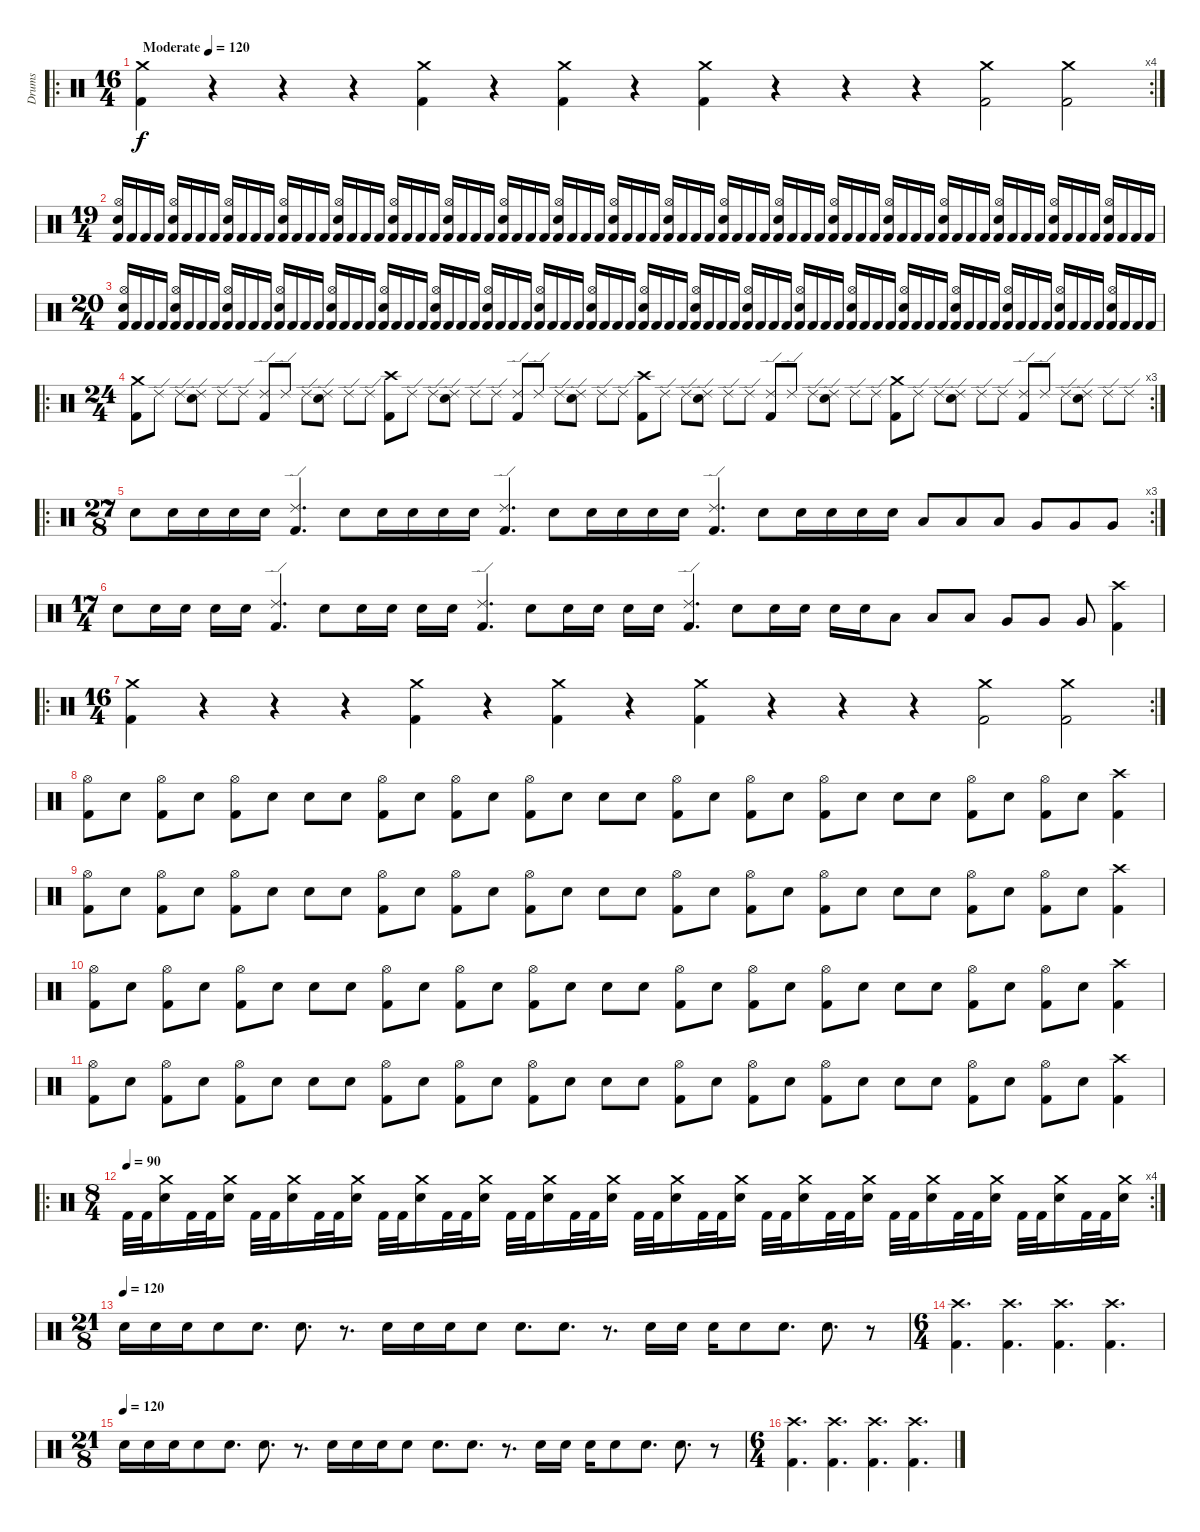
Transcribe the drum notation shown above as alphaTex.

\track ("Drums" "Drums") {instrument percussion}
\staff {score}
\articulation defaults
\ro
\rc 4
\ts (16 4)
\tempo (120 "Moderate")
\clef neutral
\ks c
("Crash medium (hit)" "Kick (hit) 2").4{dy f} r.4 r.4 r.4 ("Crash medium (hit)" "Kick (hit) 2").4 r.4 ("Crash medium (hit)" "Kick (hit) 2").4 r.4 ("Crash medium (hit)" "Kick (hit) 2").4 r.4 r.4 r.4 ("Crash medium (hit)" "Kick (hit) 2").2 ("Crash medium (hit)" "Kick (hit) 2").2 |
\ts (19 4)
("Hi-Hat (open)" "Snare (hit) 2" "Kick (hit) 2").16 "Kick (hit) 2".16 "Kick (hit) 2".16 "Kick (hit) 2".16 ("Hi-Hat (open)" "Snare (hit) 2" "Kick (hit) 2").16 "Kick (hit) 2".16 "Kick (hit) 2".16 "Kick (hit) 2".16 ("Hi-Hat (open)" "Snare (hit) 2" "Kick (hit) 2").16 "Kick (hit) 2".16 "Kick (hit) 2".16 "Kick (hit) 2".16 ("Hi-Hat (open)" "Snare (hit) 2" "Kick (hit) 2").16 "Kick (hit) 2".16 "Kick (hit) 2".16 "Kick (hit) 2".16 ("Hi-Hat (open)" "Snare (hit) 2" "Kick (hit) 2").16 "Kick (hit) 2".16 "Kick (hit) 2".16 "Kick (hit) 2".16 ("Hi-Hat (open)" "Snare (hit) 2" "Kick (hit) 2").16 "Kick (hit) 2".16 "Kick (hit) 2".16 "Kick (hit) 2".16 ("Hi-Hat (open)" "Snare (hit) 2" "Kick (hit) 2").16 "Kick (hit) 2".16 "Kick (hit) 2".16 "Kick (hit) 2".16 ("Hi-Hat (open)" "Snare (hit) 2" "Kick (hit) 2").16 "Kick (hit) 2".16 "Kick (hit) 2".16 "Kick (hit) 2".16 ("Hi-Hat (open)" "Snare (hit) 2" "Kick (hit) 2").16 "Kick (hit) 2".16 "Kick (hit) 2".16 "Kick (hit) 2".16 ("Hi-Hat (open)" "Snare (hit) 2" "Kick (hit) 2").16 "Kick (hit) 2".16 "Kick (hit) 2".16 "Kick (hit) 2".16 ("Hi-Hat (open)" "Snare (hit) 2" "Kick (hit) 2").16 "Kick (hit) 2".16 "Kick (hit) 2".16 "Kick (hit) 2".16 ("Hi-Hat (open)" "Snare (hit) 2" "Kick (hit) 2").16 "Kick (hit) 2".16 "Kick (hit) 2".16 "Kick (hit) 2".16 ("Hi-Hat (open)" "Snare (hit) 2" "Kick (hit) 2").16 "Kick (hit) 2".16 "Kick (hit) 2".16 "Kick (hit) 2".16 ("Hi-Hat (open)" "Snare (hit) 2" "Kick (hit) 2").16 "Kick (hit) 2".16 "Kick (hit) 2".16 "Kick (hit) 2".16 ("Hi-Hat (open)" "Snare (hit) 2" "Kick (hit) 2").16 "Kick (hit) 2".16 "Kick (hit) 2".16 "Kick (hit) 2".16 ("Hi-Hat (open)" "Snare (hit) 2" "Kick (hit) 2").16 "Kick (hit) 2".16 "Kick (hit) 2".16 "Kick (hit) 2".16 ("Hi-Hat (open)" "Snare (hit) 2" "Kick (hit) 2").16 "Kick (hit) 2".16 "Kick (hit) 2".16 "Kick (hit) 2".16 ("Hi-Hat (open)" "Snare (hit) 2" "Kick (hit) 2").16 "Kick (hit) 2".16 "Kick (hit) 2".16 "Kick (hit) 2".16 ("Hi-Hat (open)" "Snare (hit) 2" "Kick (hit) 2").16 "Kick (hit) 2".16 "Kick (hit) 2".16 "Kick (hit) 2".16 |
\ts (20 4)
("Hi-Hat (open)" "Snare (hit) 2" "Kick (hit) 2").16 "Kick (hit) 2".16 "Kick (hit) 2".16 "Kick (hit) 2".16 ("Hi-Hat (open)" "Snare (hit) 2" "Kick (hit) 2").16 "Kick (hit) 2".16 "Kick (hit) 2".16 "Kick (hit) 2".16 ("Hi-Hat (open)" "Snare (hit) 2" "Kick (hit) 2").16 "Kick (hit) 2".16 "Kick (hit) 2".16 "Kick (hit) 2".16 ("Hi-Hat (open)" "Snare (hit) 2" "Kick (hit) 2").16 "Kick (hit) 2".16 "Kick (hit) 2".16 "Kick (hit) 2".16 ("Hi-Hat (open)" "Snare (hit) 2" "Kick (hit) 2").16 "Kick (hit) 2".16 "Kick (hit) 2".16 "Kick (hit) 2".16 ("Hi-Hat (open)" "Snare (hit) 2" "Kick (hit) 2").16 "Kick (hit) 2".16 "Kick (hit) 2".16 "Kick (hit) 2".16 ("Hi-Hat (open)" "Snare (hit) 2" "Kick (hit) 2").16 "Kick (hit) 2".16 "Kick (hit) 2".16 "Kick (hit) 2".16 ("Hi-Hat (open)" "Snare (hit) 2" "Kick (hit) 2").16 "Kick (hit) 2".16 "Kick (hit) 2".16 "Kick (hit) 2".16 ("Hi-Hat (open)" "Snare (hit) 2" "Kick (hit) 2").16 "Kick (hit) 2".16 "Kick (hit) 2".16 "Kick (hit) 2".16 ("Hi-Hat (open)" "Snare (hit) 2" "Kick (hit) 2").16 "Kick (hit) 2".16 "Kick (hit) 2".16 "Kick (hit) 2".16 ("Hi-Hat (open)" "Snare (hit) 2" "Kick (hit) 2").16 "Kick (hit) 2".16 "Kick (hit) 2".16 "Kick (hit) 2".16 ("Hi-Hat (open)" "Snare (hit) 2" "Kick (hit) 2").16 "Kick (hit) 2".16 "Kick (hit) 2".16 "Kick (hit) 2".16 ("Hi-Hat (open)" "Snare (hit) 2" "Kick (hit) 2").16 "Kick (hit) 2".16 "Kick (hit) 2".16 "Kick (hit) 2".16 ("Hi-Hat (open)" "Snare (hit) 2" "Kick (hit) 2").16 "Kick (hit) 2".16 "Kick (hit) 2".16 "Kick (hit) 2".16 ("Hi-Hat (open)" "Snare (hit) 2" "Kick (hit) 2").16 "Kick (hit) 2".16 "Kick (hit) 2".16 "Kick (hit) 2".16 ("Hi-Hat (open)" "Snare (hit) 2" "Kick (hit) 2").16 "Kick (hit) 2".16 "Kick (hit) 2".16 "Kick (hit) 2".16 ("Hi-Hat (open)" "Snare (hit) 2" "Kick (hit) 2").16 "Kick (hit) 2".16 "Kick (hit) 2".16 "Kick (hit) 2".16 ("Hi-Hat (open)" "Snare (hit) 2" "Kick (hit) 2").16 "Kick (hit) 2".16 "Kick (hit) 2".16 "Kick (hit) 2".16 ("Hi-Hat (open)" "Snare (hit) 2" "Kick (hit) 2").16 "Kick (hit) 2".16 "Kick (hit) 2".16 "Kick (hit) 2".16 ("Hi-Hat (open)" "Snare (hit) 2" "Kick (hit) 2").16 "Kick (hit) 2".16 "Kick (hit) 2".16 "Kick (hit) 2".16 |
\ro
\rc 3
\ts (24 4)
("Crash medium (hit)" "Kick (hit) 2").8 "Ride (edge) 2".8 "Ride (edge) 2".8 ("Ride (edge) 2" "Snare (hit) 2").8 "Ride (edge) 2".8 "Ride (edge) 2".8 ("Ride (edge) 2" "Kick (hit) 2").8 "Ride (edge) 2".8 "Ride (edge) 2".8 ("Ride (edge) 2" "Snare (hit) 2").8 "Ride (edge) 2".8 "Ride (edge) 2".8 ("Crash high (hit)" "Kick (hit) 2").8 "Ride (edge) 2".8 "Ride (edge) 2".8 ("Ride (edge) 2" "Snare (hit) 2").8 "Ride (edge) 2".8 "Ride (edge) 2".8 ("Ride (edge) 2" "Kick (hit) 2").8 "Ride (edge) 2".8 "Ride (edge) 2".8 ("Ride (edge) 2" "Snare (hit) 2").8 "Ride (edge) 2".8 "Ride (edge) 2".8 ("Crash high (hit)" "Kick (hit) 2").8 "Ride (edge) 2".8 "Ride (edge) 2".8 ("Ride (edge) 2" "Snare (hit) 2").8 "Ride (edge) 2".8 "Ride (edge) 2".8 ("Ride (edge) 2" "Kick (hit) 2").8 "Ride (edge) 2".8 "Ride (edge) 2".8 ("Ride (edge) 2" "Snare (hit) 2").8 "Ride (edge) 2".8 "Ride (edge) 2".8 ("Crash medium (hit)" "Kick (hit) 2").8 "Ride (edge) 2".8 "Ride (edge) 2".8 ("Ride (edge) 2" "Snare (hit) 2").8 "Ride (edge) 2".8 "Ride (edge) 2".8 ("Ride (edge) 2" "Kick (hit) 2").8 "Ride (edge) 2".8 "Ride (edge) 2".8 ("Ride (edge) 2" "Snare (hit) 2").8 "Ride (edge) 2".8 "Ride (edge) 2".8 |
\ro
\rc 3
\ts (27 8)
"Snare (hit) 2".8 "Snare (hit) 2".16 "Snare (hit) 2".16 "Snare (hit) 2".16 "Snare (hit) 2".16 ("Ride (edge) 2" "Kick (hit) 2").4{d} "Snare (hit) 2".8 "Snare (hit) 2".16 "Snare (hit) 2".16 "Snare (hit) 2".16 "Snare (hit) 2".16 ("Ride (edge) 2" "Kick (hit) 2").4{d} "Snare (hit) 2".8 "Snare (hit) 2".16 "Snare (hit) 2".16 "Snare (hit) 2".16 "Snare (hit) 2".16 ("Ride (edge) 2" "Kick (hit) 2").4{d} "Snare (hit) 2".8 "Snare (hit) 2".16 "Snare (hit) 2".16 "Snare (hit) 2".16 "Snare (hit) 2".16 "Low Tom (hit)".8 "Low Tom (hit)".8 "Low Tom (hit)".8 "Very Low Tom (hit)".8 "Very Low Tom (hit)".8 "Very Low Tom (hit)".8 |
\ts (17 4)
"Snare (hit) 2".8 "Snare (hit) 2".16 "Snare (hit) 2".16 "Snare (hit) 2".16 "Snare (hit) 2".16 ("Ride (edge) 2" "Kick (hit) 2").4{d} "Snare (hit) 2".8 "Snare (hit) 2".16 "Snare (hit) 2".16 "Snare (hit) 2".16 "Snare (hit) 2".16 ("Ride (edge) 2" "Kick (hit) 2").4{d} "Snare (hit) 2".8 "Snare (hit) 2".16 "Snare (hit) 2".16 "Snare (hit) 2".16 "Snare (hit) 2".16 ("Ride (edge) 2" "Kick (hit) 2").4{d} "Snare (hit) 2".8 "Snare (hit) 2".16 "Snare (hit) 2".16 "Snare (hit) 2".16 "Snare (hit) 2".16 "Low Tom (hit)".8 "Low Tom (hit)".8 "Low Tom (hit)".8 "Very Low Tom (hit)".8 "Very Low Tom (hit)".8 "Very Low Tom (hit)".8 ("Crash high (hit)" "Kick (hit) 2").4 |
\ro
\rc 2
\ts (16 4)
("Crash medium (hit)" "Kick (hit) 2").4 r.4 r.4 r.4 ("Crash medium (hit)" "Kick (hit) 2").4 r.4 ("Crash medium (hit)" "Kick (hit) 2").4 r.4 ("Crash medium (hit)" "Kick (hit) 2").4 r.4 r.4 r.4 ("Crash medium (hit)" "Kick (hit) 2").2 ("Crash medium (hit)" "Kick (hit) 2").2 |
("Hi-Hat (open)" "Kick (hit) 2").8 "Snare (hit) 2".8 ("Hi-Hat (open)" "Kick (hit) 2").8 "Snare (hit) 2".8 ("Hi-Hat (open)" "Kick (hit) 2").8 "Snare (hit) 2".8 "Snare (hit) 2".8 "Snare (hit) 2".8 ("Hi-Hat (open)" "Kick (hit) 2").8 "Snare (hit) 2".8 ("Hi-Hat (open)" "Kick (hit) 2").8 "Snare (hit) 2".8 ("Hi-Hat (open)" "Kick (hit) 2").8 "Snare (hit) 2".8 "Snare (hit) 2".8 "Snare (hit) 2".8 ("Hi-Hat (open)" "Kick (hit) 2").8 "Snare (hit) 2".8 ("Hi-Hat (open)" "Kick (hit) 2").8 "Snare (hit) 2".8 ("Hi-Hat (open)" "Kick (hit) 2").8 "Snare (hit) 2".8 "Snare (hit) 2".8 "Snare (hit) 2".8 ("Hi-Hat (open)" "Kick (hit) 2").8 "Snare (hit) 2".8 ("Hi-Hat (open)" "Kick (hit) 2").8 "Snare (hit) 2".8 ("Crash high (hit)" "Kick (hit) 2").4 |
("Hi-Hat (open)" "Kick (hit) 2").8 "Snare (hit) 2".8 ("Hi-Hat (open)" "Kick (hit) 2").8 "Snare (hit) 2".8 ("Hi-Hat (open)" "Kick (hit) 2").8 "Snare (hit) 2".8 "Snare (hit) 2".8 "Snare (hit) 2".8 ("Hi-Hat (open)" "Kick (hit) 2").8 "Snare (hit) 2".8 ("Hi-Hat (open)" "Kick (hit) 2").8 "Snare (hit) 2".8 ("Hi-Hat (open)" "Kick (hit) 2").8 "Snare (hit) 2".8 "Snare (hit) 2".8 "Snare (hit) 2".8 ("Hi-Hat (open)" "Kick (hit) 2").8 "Snare (hit) 2".8 ("Hi-Hat (open)" "Kick (hit) 2").8 "Snare (hit) 2".8 ("Hi-Hat (open)" "Kick (hit) 2").8 "Snare (hit) 2".8 "Snare (hit) 2".8 "Snare (hit) 2".8 ("Hi-Hat (open)" "Kick (hit) 2").8 "Snare (hit) 2".8 ("Hi-Hat (open)" "Kick (hit) 2").8 "Snare (hit) 2".8 ("Crash high (hit)" "Kick (hit) 2").4 |
("Hi-Hat (open)" "Kick (hit) 2").8 "Snare (hit) 2".8 ("Hi-Hat (open)" "Kick (hit) 2").8 "Snare (hit) 2".8 ("Hi-Hat (open)" "Kick (hit) 2").8 "Snare (hit) 2".8 "Snare (hit) 2".8 "Snare (hit) 2".8 ("Hi-Hat (open)" "Kick (hit) 2").8 "Snare (hit) 2".8 ("Hi-Hat (open)" "Kick (hit) 2").8 "Snare (hit) 2".8 ("Hi-Hat (open)" "Kick (hit) 2").8 "Snare (hit) 2".8 "Snare (hit) 2".8 "Snare (hit) 2".8 ("Hi-Hat (open)" "Kick (hit) 2").8 "Snare (hit) 2".8 ("Hi-Hat (open)" "Kick (hit) 2").8 "Snare (hit) 2".8 ("Hi-Hat (open)" "Kick (hit) 2").8 "Snare (hit) 2".8 "Snare (hit) 2".8 "Snare (hit) 2".8 ("Hi-Hat (open)" "Kick (hit) 2").8 "Snare (hit) 2".8 ("Hi-Hat (open)" "Kick (hit) 2").8 "Snare (hit) 2".8 ("Crash high (hit)" "Kick (hit) 2").4 |
("Hi-Hat (open)" "Kick (hit) 2").8 "Snare (hit) 2".8 ("Hi-Hat (open)" "Kick (hit) 2").8 "Snare (hit) 2".8 ("Hi-Hat (open)" "Kick (hit) 2").8 "Snare (hit) 2".8 "Snare (hit) 2".8 "Snare (hit) 2".8 ("Hi-Hat (open)" "Kick (hit) 2").8 "Snare (hit) 2".8 ("Hi-Hat (open)" "Kick (hit) 2").8 "Snare (hit) 2".8 ("Hi-Hat (open)" "Kick (hit) 2").8 "Snare (hit) 2".8 "Snare (hit) 2".8 "Snare (hit) 2".8 ("Hi-Hat (open)" "Kick (hit) 2").8 "Snare (hit) 2".8 ("Hi-Hat (open)" "Kick (hit) 2").8 "Snare (hit) 2".8 ("Hi-Hat (open)" "Kick (hit) 2").8 "Snare (hit) 2".8 "Snare (hit) 2".8 "Snare (hit) 2".8 ("Hi-Hat (open)" "Kick (hit) 2").8 "Snare (hit) 2".8 ("Hi-Hat (open)" "Kick (hit) 2").8 "Snare (hit) 2".8 ("Crash high (hit)" "Kick (hit) 2").4 |
\ro
\rc 4
\ts (8 4)
\tempo (90)
"Kick (hit) 2".32 "Kick (hit) 2".32 ("Crash medium (hit)" "Snare (hit) 2").16 "Kick (hit) 2".32 "Kick (hit) 2".32 ("Crash medium (hit)" "Snare (hit) 2").16 "Kick (hit) 2".32 "Kick (hit) 2".32 ("Crash medium (hit)" "Snare (hit) 2").16 "Kick (hit) 2".32 "Kick (hit) 2".32 ("Crash medium (hit)" "Snare (hit) 2").16 "Kick (hit) 2".32 "Kick (hit) 2".32 ("Crash medium (hit)" "Snare (hit) 2").16 "Kick (hit) 2".32 "Kick (hit) 2".32 ("Crash medium (hit)" "Snare (hit) 2").16 "Kick (hit) 2".32 "Kick (hit) 2".32 ("Crash medium (hit)" "Snare (hit) 2").16 "Kick (hit) 2".32 "Kick (hit) 2".32 ("Crash medium (hit)" "Snare (hit) 2").16 "Kick (hit) 2".32 "Kick (hit) 2".32 ("Crash medium (hit)" "Snare (hit) 2").16 "Kick (hit) 2".32 "Kick (hit) 2".32 ("Crash medium (hit)" "Snare (hit) 2").16 "Kick (hit) 2".32 "Kick (hit) 2".32 ("Crash medium (hit)" "Snare (hit) 2").16 "Kick (hit) 2".32 "Kick (hit) 2".32 ("Crash medium (hit)" "Snare (hit) 2").16 "Kick (hit) 2".32 "Kick (hit) 2".32 ("Crash medium (hit)" "Snare (hit) 2").16 "Kick (hit) 2".32 "Kick (hit) 2".32 ("Crash medium (hit)" "Snare (hit) 2").16 "Kick (hit) 2".32 "Kick (hit) 2".32 ("Crash medium (hit)" "Snare (hit) 2").16 "Kick (hit) 2".32 "Kick (hit) 2".32 ("Crash medium (hit)" "Snare (hit) 2").16 |
\ts (21 8)
\tempo (120)
"Snare (hit) 2".16 "Snare (hit) 2".16 "Snare (hit) 2".16 "Snare (hit) 2".8 "Snare (hit) 2".8{d} "Snare (hit) 2".8{d} r.8{d} "Snare (hit) 2".16 "Snare (hit) 2".16 "Snare (hit) 2".16 "Snare (hit) 2".8 "Snare (hit) 2".8{d} "Snare (hit) 2".8{d} r.8{d} "Snare (hit) 2".16 "Snare (hit) 2".16 "Snare (hit) 2".16 "Snare (hit) 2".8 "Snare (hit) 2".8{d} "Snare (hit) 2".8{d} r.8 |
\ts (6 4)
("Crash high (hit)" "Kick (hit) 2").4{d} ("Crash high (hit)" "Kick (hit) 2").4{d} ("Crash high (hit)" "Kick (hit) 2").4{d} ("Crash high (hit)" "Kick (hit) 2").4{d} |
\ts (21 8)
\tempo (120)
"Snare (hit) 2".16 "Snare (hit) 2".16 "Snare (hit) 2".16 "Snare (hit) 2".8 "Snare (hit) 2".8{d} "Snare (hit) 2".8{d} r.8{d} "Snare (hit) 2".16 "Snare (hit) 2".16 "Snare (hit) 2".16 "Snare (hit) 2".8 "Snare (hit) 2".8{d} "Snare (hit) 2".8{d} r.8{d} "Snare (hit) 2".16 "Snare (hit) 2".16 "Snare (hit) 2".16 "Snare (hit) 2".8 "Snare (hit) 2".8{d} "Snare (hit) 2".8{d} r.8 |
\ts (6 4)
("Crash high (hit)" "Kick (hit) 2").4{d} ("Crash high (hit)" "Kick (hit) 2").4{d} ("Crash high (hit)" "Kick (hit) 2").4{d} ("Crash high (hit)" "Kick (hit) 2").4{d}
